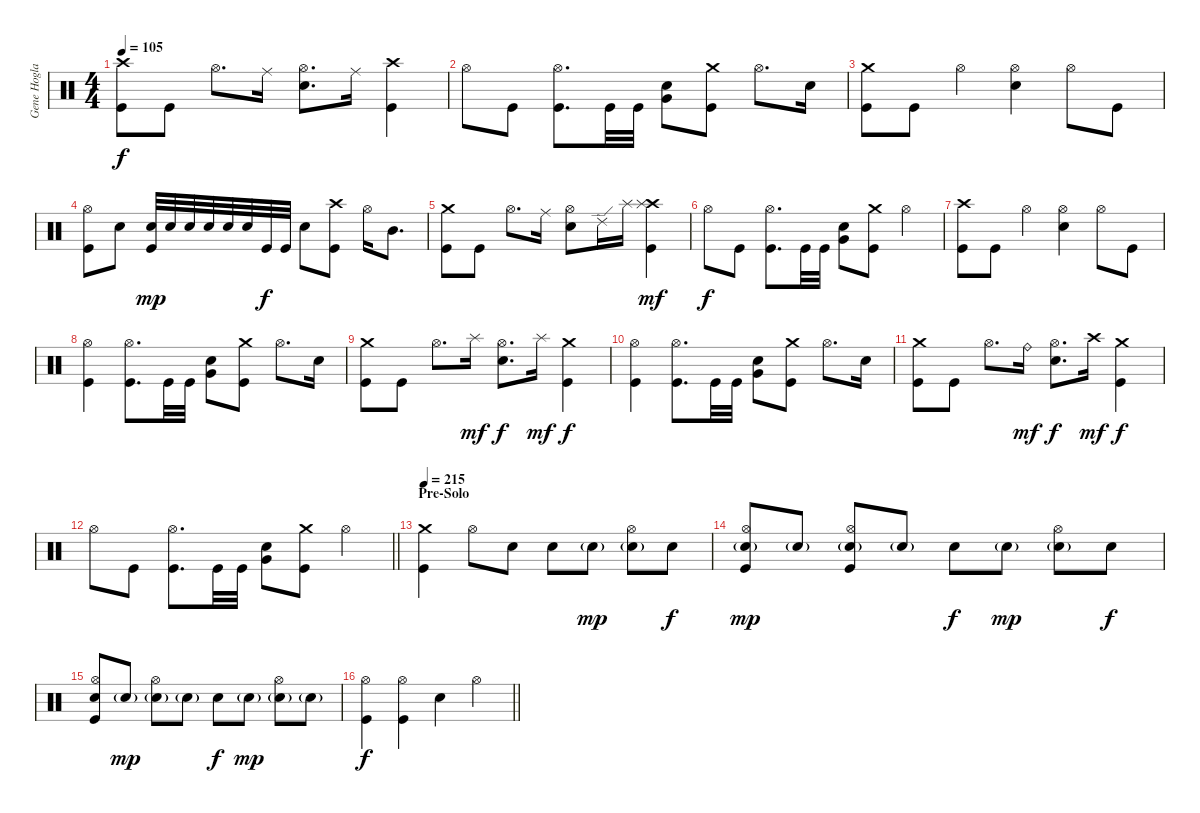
\track ("Gene Hoglan" "Gene Hogla") {instrument percussion}
\staff {score}
\articulation defaults
\ts (4 4)
\tempo 105
\clef neutral
\ks c
("Crash high (hit)" "Kick (hit)").8{dy f} "Kick (hit)".8 "Hi-Hat (open)".8{d} "Ride (middle)".16 ("Hi-Hat (open)" "Electric Snare (hit)").8{d} "Ride (middle)".16 ("Crash high (hit)" "Kick (hit)").4 |
"Hi-Hat (open)".8 "Kick (hit)".8 ("Hi-Hat (open)" "Kick (hit)").8{d} "Kick (hit)".32 "Kick (hit)".32 ("Very Low Tom (hit)" "Electric Snare (hit)").8 ("Crash medium (hit)" "Kick (hit)").8 "Hi-Hat (open)".8{d} "Electric Snare (hit)".16 |
("Crash medium (hit)" "Kick (hit)").8 "Kick (hit)".8 "Hi-Hat (open)".4 ("Hi-Hat (open)" "Electric Snare (hit)").4 "Hi-Hat (open)".8 "Kick (hit)".8 |
("Hi-Hat (open)" "Kick (hit)").8 "Electric Snare (hit)".8 ("Electric Snare (hit)" "Kick (hit)").32{dy mp} "Electric Snare (hit)".32 "Electric Snare (hit)".32 "Electric Snare (hit)".32 "Electric Snare (hit)".32 "Electric Snare (hit)".32 "Kick (hit)".32{dy f} "Kick (hit)".32 "Electric Snare (hit)".8 ("Crash high (hit)" "Kick (hit)").8 "Hi-Hat (open)".16 "Mid Tom (hit)".8{d} |
("Crash medium (hit)" "Kick (hit)").8 "Kick (hit)".8 "Hi-Hat (open)".8{d} "Ride (middle)".16 ("Hi-Hat (open)" "Electric Snare (hit)").8 "Ride (edge) 2".16 "Splash (hit)".16 ("Crash high (hit)" "Splash (hit)" "Kick (hit)").4{dy mf} |
"Hi-Hat (open)".8{dy f} "Kick (hit)".8 ("Hi-Hat (open)" "Kick (hit)").8{d} "Kick (hit)".32 "Kick (hit)".32 ("Very Low Tom (hit)" "Electric Snare (hit)").8 ("Crash medium (hit)" "Kick (hit)").8 "Hi-Hat (open)".4 |
("Crash high (hit)" "Kick (hit)").8 "Kick (hit)".8 "Hi-Hat (open)".4 ("Hi-Hat (open)" "Electric Snare (hit)").4 "Hi-Hat (open)".8 "Kick (hit)".8 |
("Hi-Hat (open)" "Kick (hit)").4 ("Hi-Hat (open)" "Kick (hit)").8{d} "Kick (hit)".32 "Kick (hit)".32 ("Very Low Tom (hit)" "Electric Snare (hit)").8 ("Crash medium (hit)" "Kick (hit)").8 "Hi-Hat (open)".8{d} "Electric Snare (hit)".16 |
("Crash medium (hit)" "Kick (hit)").8 "Kick (hit)".8 "Hi-Hat (open)".8{d} "Splash (hit)".16{dy mf} ("Hi-Hat (open)" "Electric Snare (hit)").8{d dy f} "Splash (hit)".16{dy mf} ("Crash medium (hit)" "Kick (hit)").4{dy f} |
("Hi-Hat (open)" "Kick (hit)").4 ("Hi-Hat (open)" "Kick (hit)").8{d} "Kick (hit)".32 "Kick (hit)".32 ("Very Low Tom (hit)" "Electric Snare (hit)").8 ("Crash medium (hit)" "Kick (hit)").8 "Hi-Hat (open)".8{d} "Electric Snare (hit)".16 |
("Crash medium (hit)" "Kick (hit)").8 "Kick (hit)".8 "Hi-Hat (open)".8{d} "Ride (bell)".16{dy mf} ("Hi-Hat (open)" "Electric Snare (hit)").8{d dy f} "Crash high (hit)".16{dy mf} ("Crash medium (hit)" "Kick (hit)").4{dy f} |
\barLineRight lightlight "Hi-Hat (open)".8 "Kick (hit)".8
("Hi-Hat (open)" "Kick (hit)").8{d} "Kick (hit)".32 "Kick (hit)".32 ("Very Low Tom (hit)" "Electric Snare (hit)").8 ("Crash medium (hit)" "Kick (hit)").8 "Hi-Hat (open)".4 |
\section ("" "Pre-Solo")
\tempo 215
("Crash medium (hit)" "Kick (hit)").4 "Hi-Hat (open)".8 "Electric Snare (hit)".8 "Electric Snare (hit)".8 "Electric Snare (hit)"{g}.8{dy mp} ("Hi-Hat (open)" "Electric Snare (hit)"{g}).8 "Electric Snare (hit)".8{dy f} |
("Hi-Hat (open)" "Electric Snare (hit)"{g} "Kick (hit)").8{dy mp} "Electric Snare (hit)"{g}.8 ("Hi-Hat (open)" "Electric Snare (hit)"{g} "Kick (hit)").8 "Electric Snare (hit)"{g}.8 "Electric Snare (hit)".8{dy f} "Electric Snare (hit)"{g}.8{dy mp} ("Hi-Hat (open)" "Electric Snare (hit)"{g}).8 "Electric Snare (hit)".8{dy f} |
("Hi-Hat (open)" "Electric Snare (hit)" "Kick (hit)").8 "Electric Snare (hit)"{g}.8{dy mp} ("Hi-Hat (open)" "Electric Snare (hit)"{g}).8 "Electric Snare (hit)"{g}.8 "Electric Snare (hit)".8{dy f} "Electric Snare (hit)"{g}.8{dy mp} ("Hi-Hat (open)" "Electric Snare (hit)"{g}).8 "Electric Snare (hit)"{g}.8 |
\barLineRight lightlight
("Hi-Hat (open)" "Kick (hit)").4{dy f} ("Hi-Hat (open)" "Kick (hit)").4 "Electric Snare (hit)".4 "Hi-Hat (open)".4
